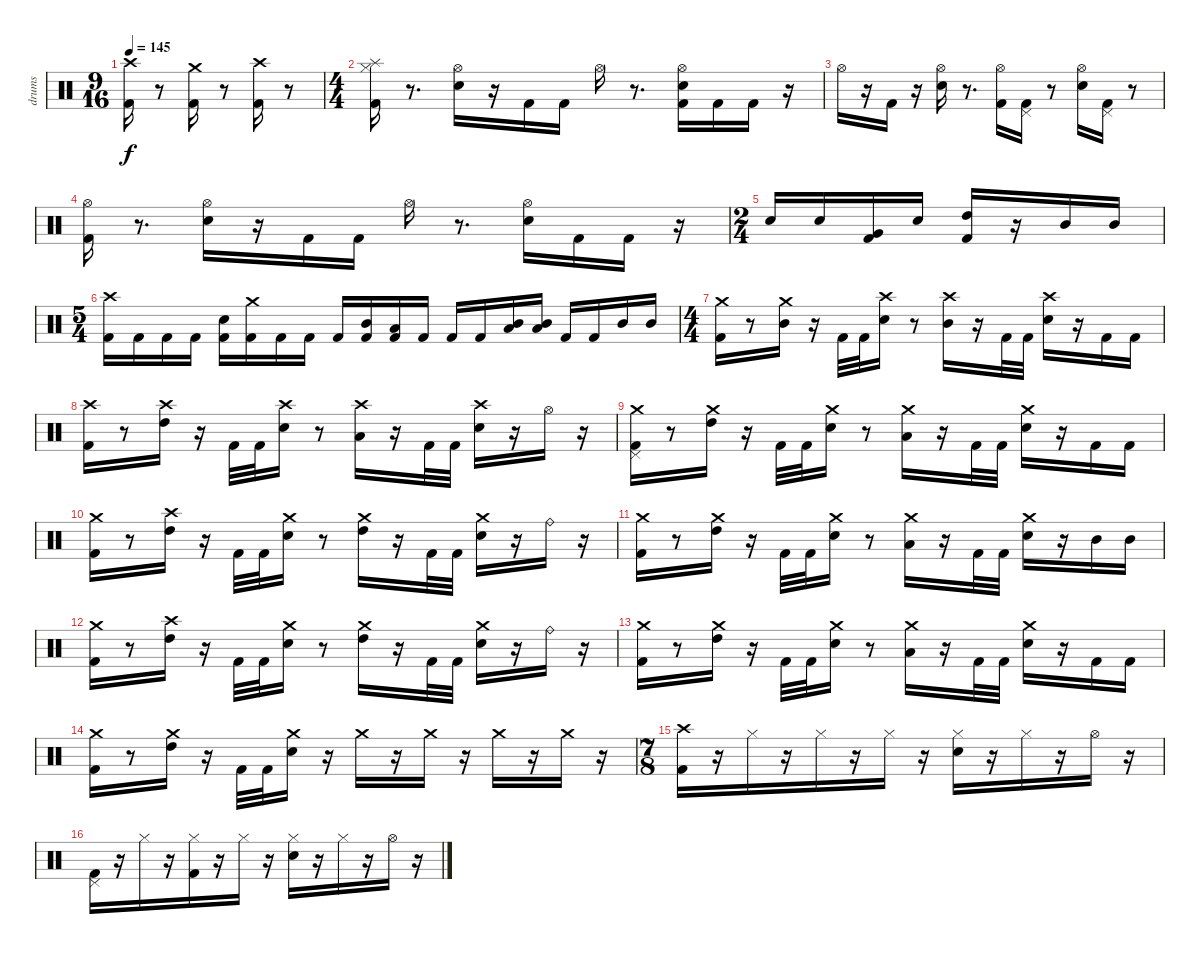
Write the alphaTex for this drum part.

\track ("drums" "drums") {instrument percussion}
\staff {score}
\articulation defaults
\ts (9 16)
\tempo 145
\clef neutral
\ks c
("Kick (hit) 2" "Crash high (hit)").16{dy f} r.8 ("Kick (hit) 2" "Crash medium (hit)").16 r.8 ("Kick (hit) 2" "Crash high (hit)").16 r.8 |
\ts (4 4)
("Kick (hit) 2" "Hi-Hat (closed)" "Splash (hit)").16 r.8{d} ("Snare (hit) 2" "Hi-Hat (open)").16 r.16 "Kick (hit) 2".16 "Kick (hit) 2".16 "Hi-Hat (open)".16 r.8{d} ("Kick (hit) 2" "Snare (hit) 2" "Hi-Hat (open)").16 "Kick (hit) 2".16 "Kick (hit) 2".16 r.16 |
"Hi-Hat (open)".16 r.16 "Kick (hit) 2".16 r.16 ("Snare (hit) 2" "Hi-Hat (open)").16 r.8{d} ("Kick (hit) 2" "Hi-Hat (open)").16 ("Kick (hit) 2" "Pedal Hi-Hat (hit)").16 r.8 ("Snare (hit) 2" "Hi-Hat (open)").16 ("Kick (hit) 2" "Pedal Hi-Hat (hit)").16 r.8 |
("Kick (hit) 2" "Hi-Hat (open)").16 r.8{d} ("Snare (hit) 2" "Hi-Hat (open)").16 r.16 "Kick (hit) 2".16 "Kick (hit) 2".16 "Hi-Hat (open)".16 r.8{d} ("Snare (hit) 2" "Hi-Hat (open)").16 "Kick (hit) 2".16 "Kick (hit) 2".16 r.16 |
\ts (2 4)
"Snare (hit) 2".16 "Snare (hit) 2".16 ("Kick (hit) 2" "Very Low Tom (hit)").16 "Snare (hit) 2".16 ("Kick (hit) 2" "High Tom (hit)").16 r.16 "Mid Tom (hit)".16 "Mid Tom (hit)".16 |
\ts (5 4)
("Kick (hit) 2" "Crash high (hit)").16 "Kick (hit) 2".16 "Kick (hit) 2".16 "Kick (hit) 2".16 ("Kick (hit) 2" "Snare (hit) 2").16 ("Kick (hit) 2" "Crash medium (hit)").16 "Kick (hit) 2".16 "Kick (hit) 2".16 "Kick (hit) 2".16 ("Kick (hit) 2" "Mid Tom (hit)").16 ("Kick (hit) 2" "Low Tom (hit)").16 "Kick (hit) 2".16 "Kick (hit) 2".16 "Kick (hit) 2".16 ("Low Tom (hit)" "Mid Tom (hit)").16 ("Low Tom (hit)" "Mid Tom (hit)").16 "Kick (hit) 2".16 "Kick (hit) 2".16 "Mid Tom (hit)".16 "Mid Tom (hit)".16 |
\ts (4 4)
("Kick (hit) 2" "Crash medium (hit)").16 r.8 ("Mid Tom (hit)" "Crash medium (hit)").16 r.16 "Kick (hit) 2".32 "Kick (hit) 2".32 ("Snare (hit) 2" "Crash high (hit)").16 r.8 ("Mid Tom (hit)" "Crash high (hit)").16 r.16 "Kick (hit) 2".32 "Kick (hit) 2".32 ("Snare (hit) 2" "Crash high (hit)").16 r.16 "Kick (hit) 2".16 "Kick (hit) 2".16 |
("Kick (hit) 2" "Crash high (hit)").16 r.8 ("High Tom (hit)" "Crash high (hit)").16 r.16 "Kick (hit) 2".32 "Kick (hit) 2".32 ("Snare (hit) 2" "Crash high (hit)").16 r.8 ("Low Tom (hit)" "Crash high (hit)").16 r.16 "Kick (hit) 2".32 "Kick (hit) 2".32 ("Snare (hit) 2" "Crash high (hit)").16 r.16 "Hi-Hat (open)".16 r.16 |
("Kick (hit) 2" "Pedal Hi-Hat (hit)" "Crash medium (hit)").16 r.8 ("High Tom (hit)" "Crash medium (hit)").16 r.16 "Kick (hit) 2".32 "Kick (hit) 2".32 ("Snare (hit) 2" "Crash medium (hit)").16 r.8 ("Low Tom (hit)" "Crash medium (hit)").16 r.16 "Kick (hit) 2".32 "Kick (hit) 2".32 ("Snare (hit) 2" "Crash medium (hit)").16 r.16 "Kick (hit) 2".16 "Kick (hit) 2".16 |
("Kick (hit) 2" "Crash medium (hit)").16 r.8 ("High Tom (hit)" "Crash high (hit)").16 r.16 "Kick (hit) 2".32 "Kick (hit) 2".32 ("Snare (hit) 2" "Crash medium (hit)").16 r.8 ("High Tom (hit)" "Crash medium (hit)").16 r.16 "Kick (hit) 2".32 "Kick (hit) 2".32 ("Snare (hit) 2" "Crash medium (hit)").16 r.16 "Ride (bell)".16 r.16 |
("Kick (hit) 2" "Crash medium (hit)").16 r.8 ("High Tom (hit)" "Crash medium (hit)").16 r.16 "Kick (hit) 2".32 "Kick (hit) 2".32 ("Snare (hit) 2" "Crash medium (hit)").16 r.8 ("Low Tom (hit)" "Crash medium (hit)").16 r.16 "Kick (hit) 2".32 "Kick (hit) 2".32 ("Snare (hit) 2" "Crash medium (hit)").16 r.16 "Mid Tom (hit)".16 "Mid Tom (hit)".16 |
("Kick (hit) 2" "Crash medium (hit)").16 r.8 ("High Tom (hit)" "Crash high (hit)").16 r.16 "Kick (hit) 2".32 "Kick (hit) 2".32 ("Snare (hit) 2" "Crash medium (hit)").16 r.8 ("High Tom (hit)" "Crash medium (hit)").16 r.16 "Kick (hit) 2".32 "Kick (hit) 2".32 ("Snare (hit) 2" "Crash medium (hit)").16 r.16 "Ride (bell)".16 r.16 |
("Kick (hit) 2" "Crash medium (hit)").16 r.8 ("High Tom (hit)" "Crash medium (hit)").16 r.16 "Kick (hit) 2".32 "Kick (hit) 2".32 ("Snare (hit) 2" "Crash medium (hit)").16 r.8 ("Low Tom (hit)" "Crash medium (hit)").16 r.16 "Kick (hit) 2".32 "Kick (hit) 2".32 ("Snare (hit) 2" "Crash medium (hit)").16 r.16 "Kick (hit) 2".16 "Kick (hit) 2".16 |
("Kick (hit) 2" "Crash medium (hit)").16 r.8 ("High Tom (hit)" "Crash medium (hit)").16 r.16 "Kick (hit) 2".32 "Kick (hit) 2".32 ("Snare (hit) 2" "Crash medium (hit)").16 r.16 "Crash medium (hit)".16 r.16 "Crash medium (hit)".16 r.16 "Crash medium (hit)".16 r.16 "Crash medium (hit)".16 r.16 |
\ts (7 8)
("Kick (hit) 2" "Crash high (hit)").16 r.16 "Hi-Hat (closed)".16 r.16 "Hi-Hat (closed)".16 r.16 "Hi-Hat (closed)".16 r.16 ("Snare (hit) 2" "Hi-Hat (closed)").16 r.16 "Hi-Hat (closed)".16 r.16 "Hi-Hat (open)".16 r.16 |
("Kick (hit) 2" "Pedal Hi-Hat (hit)").16 r.16 "Hi-Hat (closed)".16 r.16 ("Kick (hit) 2" "Hi-Hat (closed)").16 r.16 "Hi-Hat (closed)".16 r.16 ("Snare (hit) 2" "Hi-Hat (closed)").16 r.16 "Hi-Hat (closed)".16 r.16 "Hi-Hat (open)".16 r.16
